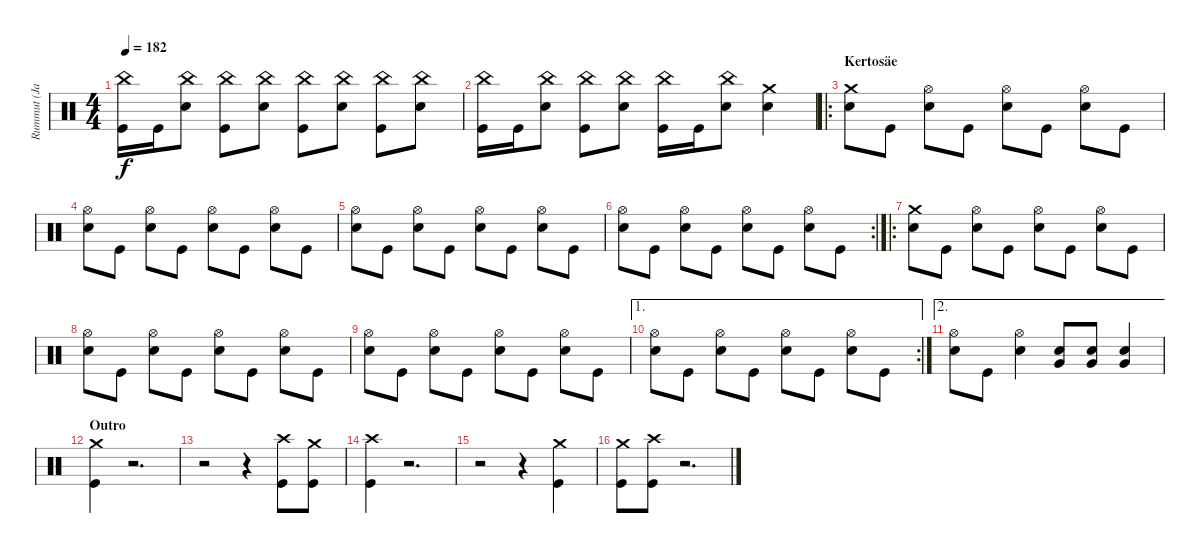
\track ("Rummut (Janne)" "Rummut (Ja") {instrument percussion}
\staff {score}
\articulation defaults
\ts (4 4)
\tempo 182
\clef neutral
\ks c
("China (hit)" "Kick (hit)").16{dy f} "Kick (hit)".16 ("China (hit)" "Snare (hit) 2").8 ("China (hit)" "Kick (hit)").8 ("China (hit)" "Snare (hit) 2").8 ("China (hit)" "Kick (hit)").8 ("China (hit)" "Snare (hit) 2").8 ("China (hit)" "Kick (hit)").8 ("China (hit)" "Snare (hit) 2").8 |
("China (hit)" "Kick (hit)").16 "Kick (hit)".16 ("China (hit)" "Snare (hit) 2").8 ("China (hit)" "Kick (hit)").8 ("China (hit)" "Snare (hit) 2").8 ("China (hit)" "Kick (hit)").16 "Kick (hit)".16 ("China (hit)" "Snare (hit) 2").8 ("Crash medium (hit)" "Snare (hit) 2").4 |
\ro
\section ("" "Kertosäe")
("Crash medium (hit)" "Snare (hit) 2").8 "Kick (hit)".8 ("Hi-Hat (open)" "Snare (hit) 2").8 "Kick (hit)".8 ("Hi-Hat (open)" "Snare (hit) 2").8 "Kick (hit)".8 ("Hi-Hat (open)" "Snare (hit) 2").8 "Kick (hit)".8 |
("Hi-Hat (open)" "Snare (hit) 2").8 "Kick (hit)".8 ("Hi-Hat (open)" "Snare (hit) 2").8 "Kick (hit)".8 ("Hi-Hat (open)" "Snare (hit) 2").8 "Kick (hit)".8 ("Hi-Hat (open)" "Snare (hit) 2").8 "Kick (hit)".8 |
("Hi-Hat (open)" "Snare (hit) 2").8 "Kick (hit)".8 ("Hi-Hat (open)" "Snare (hit) 2").8 "Kick (hit)".8 ("Hi-Hat (open)" "Snare (hit) 2").8 "Kick (hit)".8 ("Hi-Hat (open)" "Snare (hit) 2").8 "Kick (hit)".8 |
\rc 2
("Hi-Hat (open)" "Snare (hit) 2").8 "Kick (hit)".8 ("Hi-Hat (open)" "Snare (hit) 2").8 "Kick (hit)".8 ("Hi-Hat (open)" "Snare (hit) 2").8 "Kick (hit)".8 ("Hi-Hat (open)" "Snare (hit) 2").8 "Kick (hit)".8 |
\ro
("Crash medium (hit)" "Snare (hit) 2").8 "Kick (hit)".8 ("Hi-Hat (open)" "Snare (hit) 2").8 "Kick (hit)".8 ("Hi-Hat (open)" "Snare (hit) 2").8 "Kick (hit)".8 ("Hi-Hat (open)" "Snare (hit) 2").8 "Kick (hit)".8 |
("Hi-Hat (open)" "Snare (hit) 2").8 "Kick (hit)".8 ("Hi-Hat (open)" "Snare (hit) 2").8 "Kick (hit)".8 ("Hi-Hat (open)" "Snare (hit) 2").8 "Kick (hit)".8 ("Hi-Hat (open)" "Snare (hit) 2").8 "Kick (hit)".8 |
("Hi-Hat (open)" "Snare (hit) 2").8 "Kick (hit)".8 ("Hi-Hat (open)" "Snare (hit) 2").8 "Kick (hit)".8 ("Hi-Hat (open)" "Snare (hit) 2").8 "Kick (hit)".8 ("Hi-Hat (open)" "Snare (hit) 2").8 "Kick (hit)".8 |
\ae 1
\rc 2
("Hi-Hat (open)" "Snare (hit) 2").8 "Kick (hit)".8 ("Hi-Hat (open)" "Snare (hit) 2").8 "Kick (hit)".8 ("Hi-Hat (open)" "Snare (hit) 2").8 "Kick (hit)".8 ("Hi-Hat (open)" "Snare (hit) 2").8 "Kick (hit)".8 |
\ae 2
("Hi-Hat (open)" "Snare (hit) 2").8 "Kick (hit)".8 ("Hi-Hat (open)" "Snare (hit) 2").4 ("Snare (hit) 2" "Very Low Tom (hit)").8 ("Snare (hit) 2" "Very Low Tom (hit)").8 ("Snare (hit) 2" "Very Low Tom (hit)").4 |
\section ("" "Outro")
("Crash medium (hit)" "Kick (hit)").4 r.2{d} |
r.2 r.4 ("Crash high (hit)" "Kick (hit)").8 ("Crash medium (hit)" "Kick (hit)").8 |
("Crash high (hit)" "Kick (hit)").4 r.2{d} |
r.2 r.4 ("Crash medium (hit)" "Kick (hit)").4 |
("Crash medium (hit)" "Kick (hit)").8 ("Crash high (hit)" "Kick (hit)").8 r.2{d}
